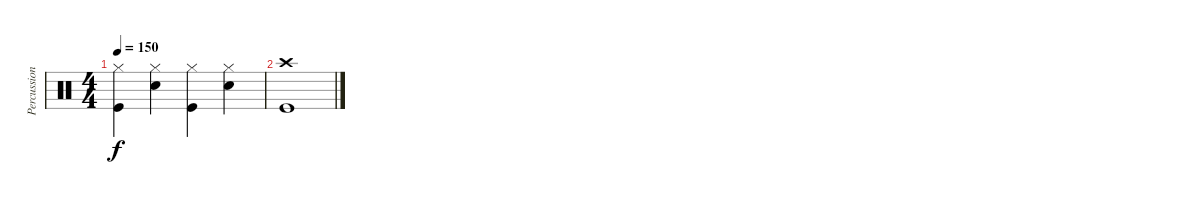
\track ("Percussion" "Percussion") {instrument percussion}
\staff {score}
\articulation defaults
\ts (4 4)
\tempo 150
\clef neutral
\ks c
("Hi-Hat (closed)" "Kick (hit)").4{dy f} ("Hi-Hat (closed)" "Electric Snare (hit)").4 ("Hi-Hat (closed)" "Kick (hit)").4 ("Hi-Hat (closed)" "Electric Snare (hit)").4 |
("Crash high (hit)" "Kick (hit)").1
